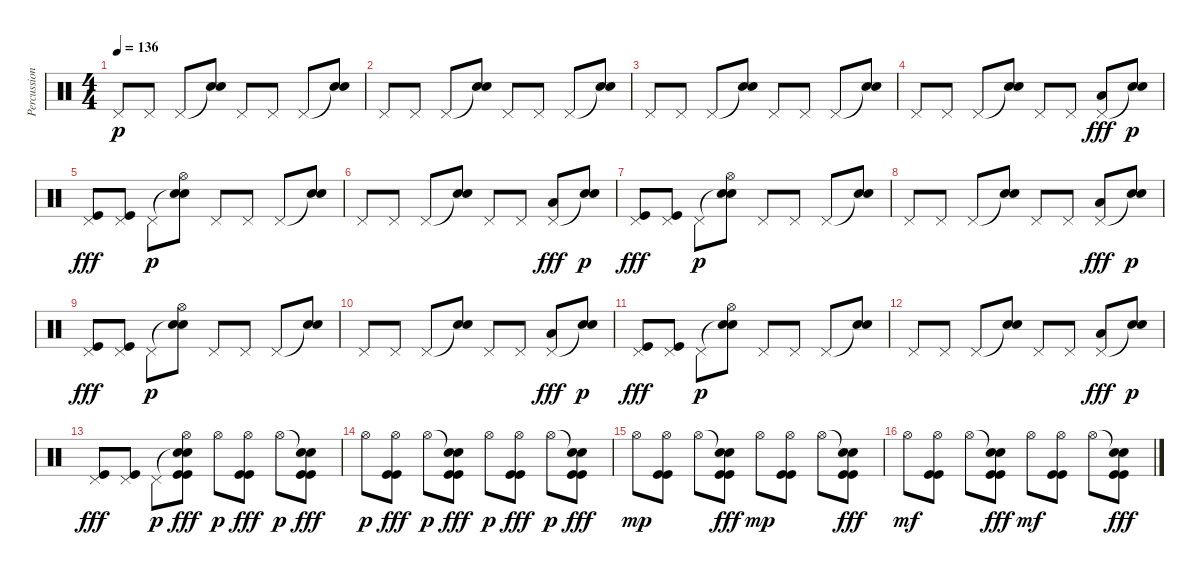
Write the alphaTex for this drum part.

\track ("Percussions" "Percussion") {instrument percussion}
\staff {score}
\articulation defaults
\ts (4 4)
\tempo 136
\clef neutral
\ks c "Pedal Hi-Hat (hit)".8{dy p} "Pedal Hi-Hat (hit)".8 "Pedal Hi-Hat (hit)".8
("Snare (hit)"{t} "Snare (hit) 2").8 "Pedal Hi-Hat (hit)".8 "Pedal Hi-Hat (hit)".8 "Pedal Hi-Hat (hit)".8 ("Snare (hit)"{t} "Snare (hit) 2").8 |
"Pedal Hi-Hat (hit)".8 "Pedal Hi-Hat (hit)".8 "Pedal Hi-Hat (hit)".8 ("Snare (hit)"{t} "Snare (hit) 2").8 "Pedal Hi-Hat (hit)".8 "Pedal Hi-Hat (hit)".8 "Pedal Hi-Hat (hit)".8 ("Snare (hit)"{t} "Snare (hit) 2").8 |
"Pedal Hi-Hat (hit)".8 "Pedal Hi-Hat (hit)".8 "Pedal Hi-Hat (hit)".8 ("Snare (hit)"{t} "Snare (hit) 2").8 "Pedal Hi-Hat (hit)".8 "Pedal Hi-Hat (hit)".8 "Pedal Hi-Hat (hit)".8 ("Snare (hit)"{t} "Snare (hit) 2").8 |
"Pedal Hi-Hat (hit)".8 "Pedal Hi-Hat (hit)".8 "Pedal Hi-Hat (hit)".8 ("Snare (hit)"{t} "Snare (hit) 2").8 "Pedal Hi-Hat (hit)".8 "Pedal Hi-Hat (hit)".8 ("Pedal Hi-Hat (hit)" "Low Tom (hit)").8{dy fff} ("Snare (hit)"{t} "Snare (hit) 2").8{dy p} |
("Pedal Hi-Hat (hit)" "Kick (hit)").8{dy fff} ("Pedal Hi-Hat (hit)" "Kick (hit)").8 "Pedal Hi-Hat (hit)".8{dy p} ("Snare (hit)"{t} "Snare (hit) 2" "Hi-Hat (open)").8 "Pedal Hi-Hat (hit)".8 "Pedal Hi-Hat (hit)".8 "Pedal Hi-Hat (hit)".8 ("Snare (hit)"{t} "Snare (hit) 2").8 |
"Pedal Hi-Hat (hit)".8 "Pedal Hi-Hat (hit)".8 "Pedal Hi-Hat (hit)".8 ("Snare (hit)"{t} "Snare (hit) 2").8 "Pedal Hi-Hat (hit)".8 "Pedal Hi-Hat (hit)".8 ("Pedal Hi-Hat (hit)" "Low Tom (hit)").8{dy fff} ("Snare (hit)"{t} "Snare (hit) 2").8{dy p} |
("Pedal Hi-Hat (hit)" "Kick (hit)").8{dy fff} ("Pedal Hi-Hat (hit)" "Kick (hit)").8 "Pedal Hi-Hat (hit)".8{dy p} ("Snare (hit)"{t} "Snare (hit) 2" "Hi-Hat (open)").8 "Pedal Hi-Hat (hit)".8 "Pedal Hi-Hat (hit)".8 "Pedal Hi-Hat (hit)".8 ("Snare (hit)"{t} "Snare (hit) 2").8 |
"Pedal Hi-Hat (hit)".8 "Pedal Hi-Hat (hit)".8 "Pedal Hi-Hat (hit)".8 ("Snare (hit)"{t} "Snare (hit) 2").8 "Pedal Hi-Hat (hit)".8 "Pedal Hi-Hat (hit)".8 ("Pedal Hi-Hat (hit)" "Low Tom (hit)").8{dy fff} ("Snare (hit)"{t} "Snare (hit) 2").8{dy p} |
("Pedal Hi-Hat (hit)" "Kick (hit)").8{dy fff} ("Pedal Hi-Hat (hit)" "Kick (hit)").8 "Pedal Hi-Hat (hit)".8{dy p} ("Snare (hit)"{t} "Snare (hit) 2" "Hi-Hat (open)").8 "Pedal Hi-Hat (hit)".8 "Pedal Hi-Hat (hit)".8 "Pedal Hi-Hat (hit)".8 ("Snare (hit)"{t} "Snare (hit) 2").8 |
"Pedal Hi-Hat (hit)".8 "Pedal Hi-Hat (hit)".8 "Pedal Hi-Hat (hit)".8 ("Snare (hit)"{t} "Snare (hit) 2").8 "Pedal Hi-Hat (hit)".8 "Pedal Hi-Hat (hit)".8 ("Pedal Hi-Hat (hit)" "Low Tom (hit)").8{dy fff} ("Snare (hit)"{t} "Snare (hit) 2").8{dy p} |
("Pedal Hi-Hat (hit)" "Kick (hit)").8{dy fff} ("Pedal Hi-Hat (hit)" "Kick (hit)").8 "Pedal Hi-Hat (hit)".8{dy p} ("Snare (hit)"{t} "Snare (hit) 2" "Hi-Hat (open)").8 "Pedal Hi-Hat (hit)".8 "Pedal Hi-Hat (hit)".8 "Pedal Hi-Hat (hit)".8 ("Snare (hit)"{t} "Snare (hit) 2").8 |
"Pedal Hi-Hat (hit)".8 "Pedal Hi-Hat (hit)".8 "Pedal Hi-Hat (hit)".8 ("Snare (hit)"{t} "Snare (hit) 2").8 "Pedal Hi-Hat (hit)".8 "Pedal Hi-Hat (hit)".8 ("Pedal Hi-Hat (hit)" "Low Tom (hit)").8{dy fff} ("Snare (hit)"{t} "Snare (hit) 2").8{dy p} |
("Pedal Hi-Hat (hit)" "Kick (hit)").8{dy fff} ("Pedal Hi-Hat (hit)" "Kick (hit)").8 "Pedal Hi-Hat (hit)".8{dy p} ("Snare (hit)"{t} "Snare (hit) 2" "Hi-Hat (open)" "Kick (hit)" "Kick (hit)").8{dy fff} "Hi-Hat (open)".8{dy p} ("Hi-Hat (open)" "Kick (hit)" "Kick (hit)").8{dy fff} "Hi-Hat (open)".8{dy p} ("Snare (hit)"{t} "Snare (hit) 2" "Kick (hit)" "Kick (hit)").8{dy fff} |
"Hi-Hat (open)".8{dy p} ("Hi-Hat (open)" "Kick (hit)" "Kick (hit)").8{dy fff} "Hi-Hat (open)".8{dy p} ("Snare (hit)"{t} "Snare (hit) 2" "Kick (hit)" "Kick (hit)").8{dy fff} "Hi-Hat (open)".8{dy p} ("Hi-Hat (open)" "Kick (hit)" "Kick (hit)").8{dy fff} "Hi-Hat (open)".8{dy p} ("Snare (hit)"{t} "Snare (hit) 2" "Kick (hit)" "Kick (hit)").8{dy fff} |
"Hi-Hat (open)".8{dy mp} ("Hi-Hat (open)" "Kick (hit)" "Kick (hit)").8 "Hi-Hat (open)".8 ("Snare (hit)"{t} "Snare (hit) 2" "Kick (hit)" "Kick (hit)").8{dy fff} "Hi-Hat (open)".8{dy mp} ("Hi-Hat (open)" "Kick (hit)" "Kick (hit)").8 "Hi-Hat (open)".8 ("Snare (hit)"{t} "Snare (hit) 2" "Kick (hit)" "Kick (hit)").8{dy fff} |
"Hi-Hat (open)".8{dy mf} ("Hi-Hat (open)" "Kick (hit)" "Kick (hit)").8 "Hi-Hat (open)".8 ("Snare (hit)"{t} "Snare (hit) 2" "Kick (hit)" "Kick (hit)").8{dy fff} "Hi-Hat (open)".8{dy mf} ("Hi-Hat (open)" "Kick (hit)" "Kick (hit)").8 "Hi-Hat (open)".8 ("Snare (hit)"{t} "Snare (hit) 2" "Kick (hit)" "Kick (hit)").8{dy fff}
